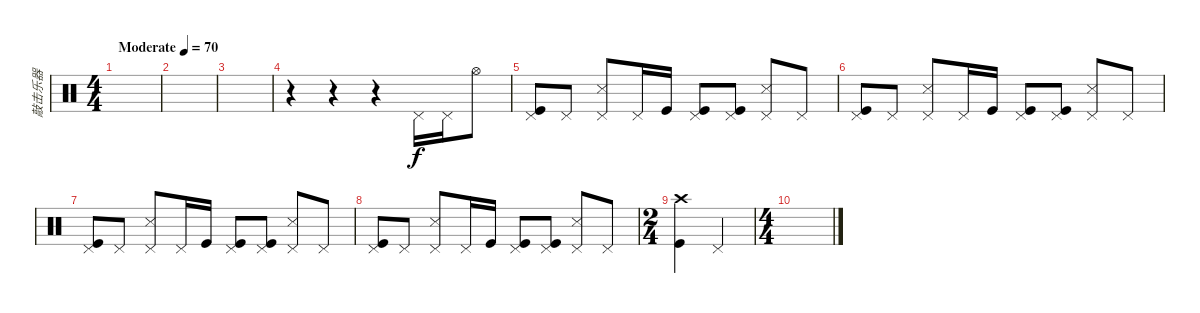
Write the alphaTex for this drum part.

\track ("敲击乐器" "敲击乐器") {instrument percussion}
\staff {score}
\articulation defaults
\ts (4 4)
\tempo (70 "Moderate")
\clef neutral
\ks c
|
|
|
r.4 r.4 r.4 "Pedal Hi-Hat (hit)".16 "Pedal Hi-Hat (hit)".16 "Hi-Hat (open)".8 |
("Pedal Hi-Hat (hit)" "Kick (hit)").8 "Pedal Hi-Hat (hit)".8 ("Pedal Hi-Hat (hit)" "Snare (side stick) 3").8 "Pedal Hi-Hat (hit)".16 "Kick (hit)".16 ("Pedal Hi-Hat (hit)" "Kick (hit)").8 ("Pedal Hi-Hat (hit)" "Kick (hit)").8 ("Pedal Hi-Hat (hit)" "Snare (side stick) 3").8 "Pedal Hi-Hat (hit)".8 |
("Pedal Hi-Hat (hit)" "Kick (hit)").8 "Pedal Hi-Hat (hit)".8 ("Pedal Hi-Hat (hit)" "Snare (side stick) 3").8 "Pedal Hi-Hat (hit)".16 "Kick (hit)".16 ("Pedal Hi-Hat (hit)" "Kick (hit)").8 ("Pedal Hi-Hat (hit)" "Kick (hit)").8 ("Pedal Hi-Hat (hit)" "Snare (side stick) 3").8 "Pedal Hi-Hat (hit)".8 |
("Pedal Hi-Hat (hit)" "Kick (hit)").8 "Pedal Hi-Hat (hit)".8 ("Pedal Hi-Hat (hit)" "Snare (side stick) 3").8 "Pedal Hi-Hat (hit)".16 "Kick (hit)".16 ("Pedal Hi-Hat (hit)" "Kick (hit)").8 ("Pedal Hi-Hat (hit)" "Kick (hit)").8 ("Pedal Hi-Hat (hit)" "Snare (side stick) 3").8 "Pedal Hi-Hat (hit)".8 |
("Pedal Hi-Hat (hit)" "Kick (hit)").8 "Pedal Hi-Hat (hit)".8 ("Pedal Hi-Hat (hit)" "Snare (side stick) 3").8 "Pedal Hi-Hat (hit)".16 "Kick (hit)".16 ("Pedal Hi-Hat (hit)" "Kick (hit)").8 ("Pedal Hi-Hat (hit)" "Kick (hit)").8 ("Pedal Hi-Hat (hit)" "Snare (side stick) 3").8 "Pedal Hi-Hat (hit)".8 |
\ts (2 4)
("Crash high (hit)" "Kick (hit)").4 "Pedal Hi-Hat (hit)".4 |
\ts (4 4)
